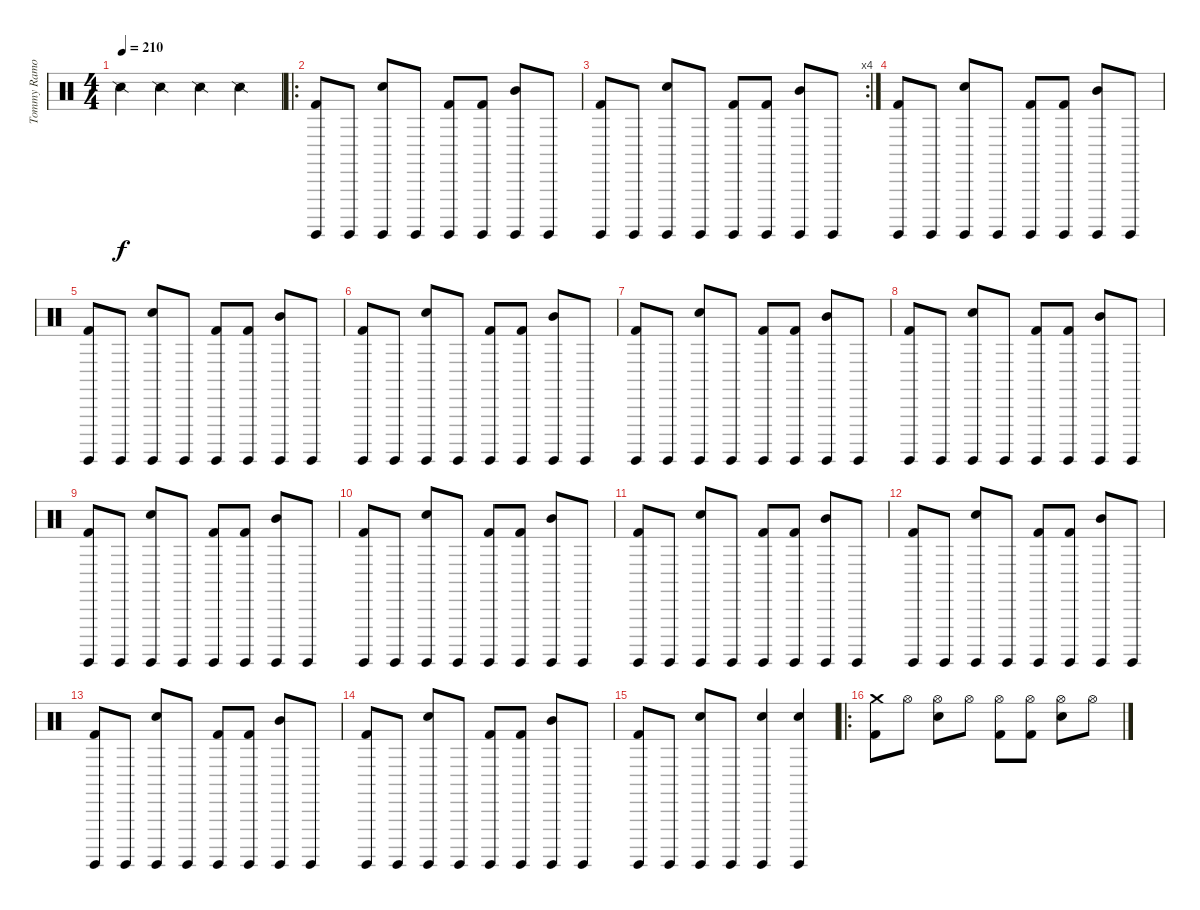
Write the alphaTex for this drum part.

\track ("Tommy Ramone" "Tommy Ramo") {instrument percussion}
\staff {score}
\articulation defaults
\ts (4 4)
\tempo 210
\clef neutral
\ks c "Snare (side stick) 2".4{dy f} "Snare (side stick) 2".4 "Snare (side stick) 2".4 "Snare (side stick) 2".4
|
\ro
("Surdo (hit)" "Kick (hit) 2").8 "Surdo (hit)".8 ("Surdo (hit)" "Snare (hit) 2").8 "Surdo (hit)".8 ("Surdo (hit)" "Kick (hit) 2").8 ("Surdo (hit)" "Kick (hit) 2").8 ("Surdo (hit)" "Mid Tom (hit)").8 "Surdo (hit)".8 |
\rc 4
("Surdo (hit)" "Kick (hit) 2").8 "Surdo (hit)".8 ("Surdo (hit)" "Snare (hit) 2").8 "Surdo (hit)".8 ("Surdo (hit)" "Kick (hit) 2").8 ("Surdo (hit)" "Kick (hit) 2").8 ("Surdo (hit)" "Mid Tom (hit)").8 "Surdo (hit)".8 |
("Surdo (hit)" "Kick (hit) 2").8 "Surdo (hit)".8 ("Surdo (hit)" "Snare (hit) 2").8 "Surdo (hit)".8 ("Surdo (hit)" "Kick (hit) 2").8 ("Surdo (hit)" "Kick (hit) 2").8 ("Surdo (hit)" "Mid Tom (hit)").8 "Surdo (hit)".8 |
("Surdo (hit)" "Kick (hit) 2").8 "Surdo (hit)".8 ("Surdo (hit)" "Snare (hit) 2").8 "Surdo (hit)".8 ("Surdo (hit)" "Kick (hit) 2").8 ("Surdo (hit)" "Kick (hit) 2").8 ("Surdo (hit)" "Mid Tom (hit)").8 "Surdo (hit)".8 |
("Surdo (hit)" "Kick (hit) 2").8 "Surdo (hit)".8 ("Surdo (hit)" "Snare (hit) 2").8 "Surdo (hit)".8 ("Surdo (hit)" "Kick (hit) 2").8 ("Surdo (hit)" "Kick (hit) 2").8 ("Surdo (hit)" "Mid Tom (hit)").8 "Surdo (hit)".8 |
("Surdo (hit)" "Kick (hit) 2").8 "Surdo (hit)".8 ("Surdo (hit)" "Snare (hit) 2").8 "Surdo (hit)".8 ("Surdo (hit)" "Kick (hit) 2").8 ("Surdo (hit)" "Kick (hit) 2").8 ("Surdo (hit)" "Mid Tom (hit)").8 "Surdo (hit)".8 |
("Surdo (hit)" "Kick (hit) 2").8 "Surdo (hit)".8 ("Surdo (hit)" "Snare (hit) 2").8 "Surdo (hit)".8 ("Surdo (hit)" "Kick (hit) 2").8 ("Surdo (hit)" "Kick (hit) 2").8 ("Surdo (hit)" "Mid Tom (hit)").8 "Surdo (hit)".8 |
("Surdo (hit)" "Kick (hit) 2").8 "Surdo (hit)".8 ("Surdo (hit)" "Snare (hit) 2").8 "Surdo (hit)".8 ("Surdo (hit)" "Kick (hit) 2").8 ("Surdo (hit)" "Kick (hit) 2").8 ("Surdo (hit)" "Mid Tom (hit)").8 "Surdo (hit)".8 |
("Surdo (hit)" "Kick (hit) 2").8 "Surdo (hit)".8 ("Surdo (hit)" "Snare (hit) 2").8 "Surdo (hit)".8 ("Surdo (hit)" "Kick (hit) 2").8 ("Surdo (hit)" "Kick (hit) 2").8 ("Surdo (hit)" "Mid Tom (hit)").8 "Surdo (hit)".8 |
("Surdo (hit)" "Kick (hit) 2").8 "Surdo (hit)".8 ("Surdo (hit)" "Snare (hit) 2").8 "Surdo (hit)".8 ("Surdo (hit)" "Kick (hit) 2").8 ("Surdo (hit)" "Kick (hit) 2").8 ("Surdo (hit)" "Mid Tom (hit)").8 "Surdo (hit)".8 |
("Surdo (hit)" "Kick (hit) 2").8 "Surdo (hit)".8 ("Surdo (hit)" "Snare (hit) 2").8 "Surdo (hit)".8 ("Surdo (hit)" "Kick (hit) 2").8 ("Surdo (hit)" "Kick (hit) 2").8 ("Surdo (hit)" "Mid Tom (hit)").8 "Surdo (hit)".8 |
("Surdo (hit)" "Kick (hit) 2").8 "Surdo (hit)".8 ("Surdo (hit)" "Snare (hit) 2").8 "Surdo (hit)".8 ("Surdo (hit)" "Kick (hit) 2").8 ("Surdo (hit)" "Kick (hit) 2").8 ("Surdo (hit)" "Mid Tom (hit)").8 "Surdo (hit)".8 |
("Surdo (hit)" "Kick (hit) 2").8 "Surdo (hit)".8 ("Surdo (hit)" "Snare (hit) 2").8 "Surdo (hit)".8 ("Surdo (hit)" "Kick (hit) 2").8 ("Surdo (hit)" "Kick (hit) 2").8 ("Surdo (hit)" "Mid Tom (hit)").8 "Surdo (hit)".8 |
("Surdo (hit)" "Kick (hit) 2").8 "Surdo (hit)".8 ("Surdo (hit)" "Snare (hit) 2").8 "Surdo (hit)".8 ("Surdo (hit)" "Snare (hit) 2").4{bd 120} ("Surdo (hit)" "Snare (hit) 2").4{bd 120} |
\ro
("Crash medium (hit)" "Kick (hit) 2").8 "Hi-Hat (open)".8 ("Hi-Hat (open)" "Snare (hit) 2").8 "Hi-Hat (open)".8 ("Hi-Hat (open)" "Kick (hit) 2").8 ("Hi-Hat (open)" "Kick (hit) 2").8 ("Hi-Hat (open)" "Snare (hit) 2").8 "Hi-Hat (open)".8
